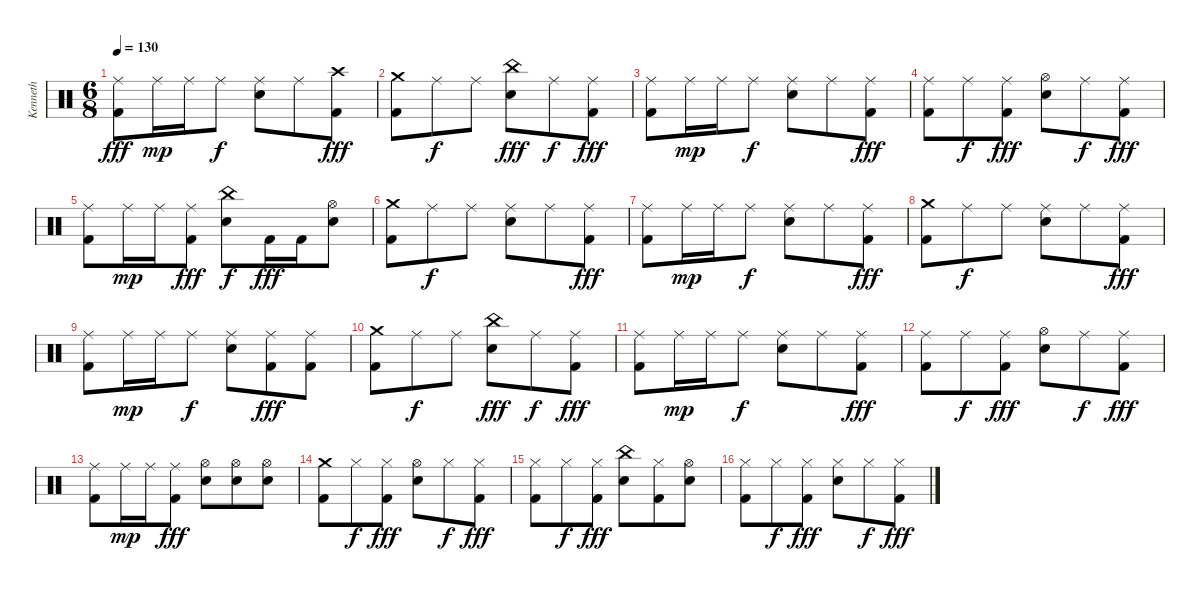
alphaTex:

\track ("Kenneth" "Kenneth") {instrument percussion}
\staff {score}
\articulation defaults
\ts (6 8)
\tempo 130
\clef neutral
\ks c
("Ride (middle)" "Kick (hit) 2").8{dy fff} "Ride (middle)".16{dy mp} "Ride (middle)".16 "Ride (middle)".8{dy f} ("Ride (middle)" "Electric Snare (hit)").8 "Ride (middle)".8 ("Crash high (hit)" "Kick (hit) 2").8{dy fff} |
("Crash medium (hit)" "Kick (hit) 2").8 "Ride (middle)".8{dy f} "Ride (middle)".8 ("China (hit)" "Electric Snare (hit)").8{dy fff} "Ride (middle)".8{dy f} ("Ride (middle)" "Kick (hit) 2").8{dy fff} |
("Ride (middle)" "Kick (hit) 2").8 "Ride (middle)".16{dy mp} "Ride (middle)".16 "Ride (middle)".8{dy f} ("Ride (middle)" "Electric Snare (hit)").8 "Ride (middle)".8 ("Ride (middle)" "Kick (hit) 2").8{dy fff} |
("Ride (middle)" "Kick (hit) 2").8 "Ride (middle)".8{dy f} ("Ride (middle)" "Kick (hit) 2").8{dy fff} ("Hi-Hat (open)" "Electric Snare (hit)").8 "Ride (middle)".8{dy f} ("Ride (middle)" "Kick (hit) 2").8{dy fff} |
("Ride (middle)" "Kick (hit) 2").8 "Ride (middle)".16{dy mp} "Ride (middle)".16 ("Ride (middle)" "Kick (hit) 2").8{dy fff} ("China (hit)" "Electric Snare (hit)").8{dy f} "Kick (hit) 2".16{dy fff} "Kick (hit) 2".16 ("Hi-Hat (open)" "Electric Snare (hit)").8 |
("Crash medium (hit)" "Kick (hit) 2").8 "Ride (middle)".8{dy f} "Ride (middle)".8 ("Ride (middle)" "Electric Snare (hit)").8 "Ride (middle)".8 ("Ride (middle)" "Kick (hit) 2").8{dy fff} |
("Ride (middle)" "Kick (hit) 2").8 "Ride (middle)".16{dy mp} "Ride (middle)".16 "Ride (middle)".8{dy f} ("Ride (middle)" "Electric Snare (hit)").8 "Ride (middle)".8 ("Ride (middle)" "Kick (hit) 2").8{dy fff} |
("Crash medium (hit)" "Kick (hit) 2").8 "Ride (middle)".8{dy f} "Ride (middle)".8 ("Ride (middle)" "Electric Snare (hit)").8 "Ride (middle)".8 ("Ride (middle)" "Kick (hit) 2").8{dy fff} |
("Ride (middle)" "Kick (hit) 2").8 "Ride (middle)".16{dy mp} "Ride (middle)".16 "Ride (middle)".8{dy f} ("Ride (middle)" "Electric Snare (hit)").8 ("Ride (middle)" "Kick (hit) 2").8{dy fff} ("Ride (middle)" "Kick (hit) 2").8 |
("Crash medium (hit)" "Kick (hit) 2").8 "Ride (middle)".8{dy f} "Ride (middle)".8 ("China (hit)" "Electric Snare (hit)").8{dy fff} "Ride (middle)".8{dy f} ("Ride (middle)" "Kick (hit) 2").8{dy fff} |
("Ride (middle)" "Kick (hit) 2").8 "Ride (middle)".16{dy mp} "Ride (middle)".16 "Ride (middle)".8{dy f} ("Ride (middle)" "Electric Snare (hit)").8 "Ride (middle)".8 ("Ride (middle)" "Kick (hit) 2").8{dy fff} |
("Ride (middle)" "Kick (hit) 2").8 "Ride (middle)".8{dy f} ("Ride (middle)" "Kick (hit) 2").8{dy fff} ("Hi-Hat (open)" "Electric Snare (hit)").8 "Ride (middle)".8{dy f} ("Ride (middle)" "Kick (hit) 2").8{dy fff} |
("Ride (middle)" "Kick (hit) 2").8 "Ride (middle)".16{dy mp} "Ride (middle)".16 ("Ride (middle)" "Kick (hit) 2").8{dy fff} ("Hi-Hat (open)" "Electric Snare (hit)").8 ("Hi-Hat (open)" "Electric Snare (hit)").8 ("Hi-Hat (open)" "Electric Snare (hit)").8 |
("Crash medium (hit)" "Kick (hit) 2").8 "Hi-Hat (closed)".8{dy f} ("Hi-Hat (closed)" "Kick (hit) 2").8{dy fff} ("Hi-Hat (open)" "Electric Snare (hit)").8 "Hi-Hat (closed)".8{dy f} ("Hi-Hat (closed)" "Kick (hit) 2").8{dy fff} |
("Hi-Hat (closed)" "Kick (hit) 2").8 "Hi-Hat (closed)".8{dy f} ("Hi-Hat (closed)" "Kick (hit) 2").8{dy fff} ("China (hit)" "Electric Snare (hit)").8 ("Hi-Hat (closed)" "Kick (hit) 2").8 ("Hi-Hat (open)" "Electric Snare (hit)").8 |
("Hi-Hat (closed)" "Kick (hit) 2").8 "Hi-Hat (closed)".8{dy f} ("Hi-Hat (closed)" "Kick (hit) 2").8{dy fff} ("Hi-Hat (closed)" "Electric Snare (hit)").8 "Hi-Hat (closed)".8{dy f} ("Hi-Hat (closed)" "Kick (hit) 2").8{dy fff}
